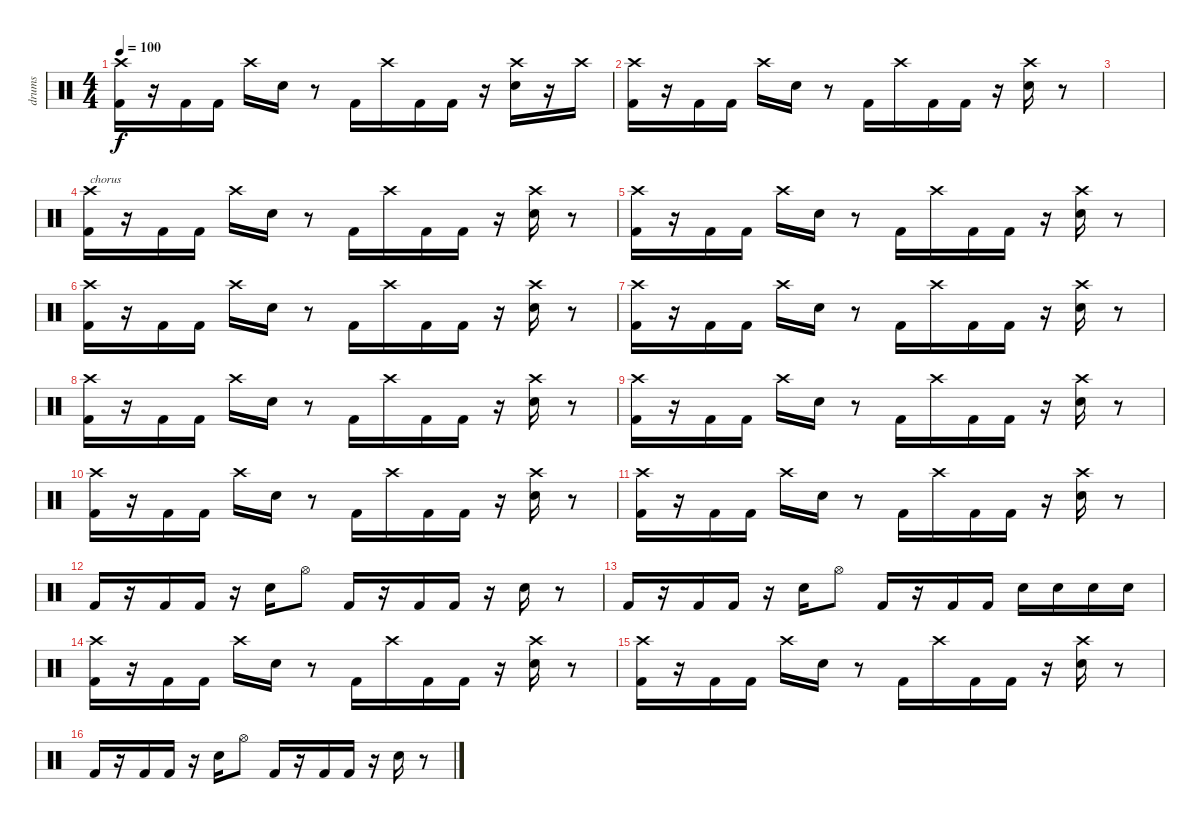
\track ("drums" "drums") {instrument percussion}
\staff {score}
\articulation defaults
\ts (4 4)
\tempo 100
\clef neutral
\ks c
("Crash high (hit)" "Kick (hit) 2").16{dy f} r.16 "Kick (hit) 2".16 "Kick (hit) 2".16 "Crash high (hit)".16 "Electric Snare (hit)".16 r.8 "Kick (hit) 2".16 "Crash high (hit)".16 "Kick (hit) 2".16 "Kick (hit) 2".16 r.16 ("Crash high (hit)" "Electric Snare (hit)").16 r.16 "Crash high (hit)".16 |
("Crash high (hit)" "Kick (hit) 2").16 r.16 "Kick (hit) 2".16 "Kick (hit) 2".16 "Crash high (hit)".16 "Electric Snare (hit)".16 r.8 "Kick (hit) 2".16 "Crash high (hit)".16 "Kick (hit) 2".16 "Kick (hit) 2".16 r.16 ("Crash high (hit)" "Electric Snare (hit)").16 r.8 |
|
("Crash high (hit)" "Kick (hit) 2").16{txt "chorus"} r.16 "Kick (hit) 2".16 "Kick (hit) 2".16 "Crash high (hit)".16 "Electric Snare (hit)".16 r.8 "Kick (hit) 2".16 "Crash high (hit)".16 "Kick (hit) 2".16 "Kick (hit) 2".16 r.16 ("Crash high (hit)" "Electric Snare (hit)").16 r.8 |
("Crash high (hit)" "Kick (hit) 2").16 r.16 "Kick (hit) 2".16 "Kick (hit) 2".16 "Crash high (hit)".16 "Electric Snare (hit)".16 r.8 "Kick (hit) 2".16 "Crash high (hit)".16 "Kick (hit) 2".16 "Kick (hit) 2".16 r.16 ("Crash high (hit)" "Electric Snare (hit)").16 r.8 |
("Crash high (hit)" "Kick (hit) 2").16 r.16 "Kick (hit) 2".16 "Kick (hit) 2".16 "Crash high (hit)".16 "Electric Snare (hit)".16 r.8 "Kick (hit) 2".16 "Crash high (hit)".16 "Kick (hit) 2".16 "Kick (hit) 2".16 r.16 ("Crash high (hit)" "Electric Snare (hit)").16 r.8 |
("Crash high (hit)" "Kick (hit) 2").16 r.16 "Kick (hit) 2".16 "Kick (hit) 2".16 "Crash high (hit)".16 "Electric Snare (hit)".16 r.8 "Kick (hit) 2".16 "Crash high (hit)".16 "Kick (hit) 2".16 "Kick (hit) 2".16 r.16 ("Crash high (hit)" "Electric Snare (hit)").16 r.8 |
("Crash high (hit)" "Kick (hit) 2").16 r.16 "Kick (hit) 2".16 "Kick (hit) 2".16 "Crash high (hit)".16 "Electric Snare (hit)".16 r.8 "Kick (hit) 2".16 "Crash high (hit)".16 "Kick (hit) 2".16 "Kick (hit) 2".16 r.16 ("Crash high (hit)" "Electric Snare (hit)").16 r.8 |
("Crash high (hit)" "Kick (hit) 2").16 r.16 "Kick (hit) 2".16 "Kick (hit) 2".16 "Crash high (hit)".16 "Electric Snare (hit)".16 r.8 "Kick (hit) 2".16 "Crash high (hit)".16 "Kick (hit) 2".16 "Kick (hit) 2".16 r.16 ("Crash high (hit)" "Electric Snare (hit)").16 r.8 |
("Crash high (hit)" "Kick (hit) 2").16 r.16 "Kick (hit) 2".16 "Kick (hit) 2".16 "Crash high (hit)".16 "Electric Snare (hit)".16 r.8 "Kick (hit) 2".16 "Crash high (hit)".16 "Kick (hit) 2".16 "Kick (hit) 2".16 r.16 ("Crash high (hit)" "Electric Snare (hit)").16 r.8 |
("Crash high (hit)" "Kick (hit) 2").16 r.16 "Kick (hit) 2".16 "Kick (hit) 2".16 "Crash high (hit)".16 "Electric Snare (hit)".16 r.8 "Kick (hit) 2".16 "Crash high (hit)".16 "Kick (hit) 2".16 "Kick (hit) 2".16 r.16 ("Crash high (hit)" "Electric Snare (hit)").16 r.8 |
"Kick (hit) 2".16 r.16 "Kick (hit) 2".16 "Kick (hit) 2".16 r.16 "Electric Snare (hit)".16 "Hi-Hat (open)".8 "Kick (hit) 2".16 r.16 "Kick (hit) 2".16 "Kick (hit) 2".16 r.16 "Electric Snare (hit)".16 r.8 |
"Kick (hit) 2".16 r.16 "Kick (hit) 2".16 "Kick (hit) 2".16 r.16 "Electric Snare (hit)".16 "Hi-Hat (open)".8 "Kick (hit) 2".16 r.16 "Kick (hit) 2".16 "Kick (hit) 2".16 "Electric Snare (hit)".16 "Electric Snare (hit)".16 "Electric Snare (hit)".16 "Electric Snare (hit)".16 |
("Crash high (hit)" "Kick (hit) 2").16 r.16 "Kick (hit) 2".16 "Kick (hit) 2".16 "Crash high (hit)".16 "Electric Snare (hit)".16 r.8 "Kick (hit) 2".16 "Crash high (hit)".16 "Kick (hit) 2".16 "Kick (hit) 2".16 r.16 ("Crash high (hit)" "Electric Snare (hit)").16 r.8 |
("Crash high (hit)" "Kick (hit) 2").16 r.16 "Kick (hit) 2".16 "Kick (hit) 2".16 "Crash high (hit)".16 "Electric Snare (hit)".16 r.8 "Kick (hit) 2".16 "Crash high (hit)".16 "Kick (hit) 2".16 "Kick (hit) 2".16 r.16 ("Crash high (hit)" "Electric Snare (hit)").16 r.8 |
"Kick (hit) 2".16 r.16 "Kick (hit) 2".16 "Kick (hit) 2".16 r.16 "Electric Snare (hit)".16 "Hi-Hat (open)".8 "Kick (hit) 2".16 r.16 "Kick (hit) 2".16 "Kick (hit) 2".16 r.16 "Electric Snare (hit)".16 r.8
